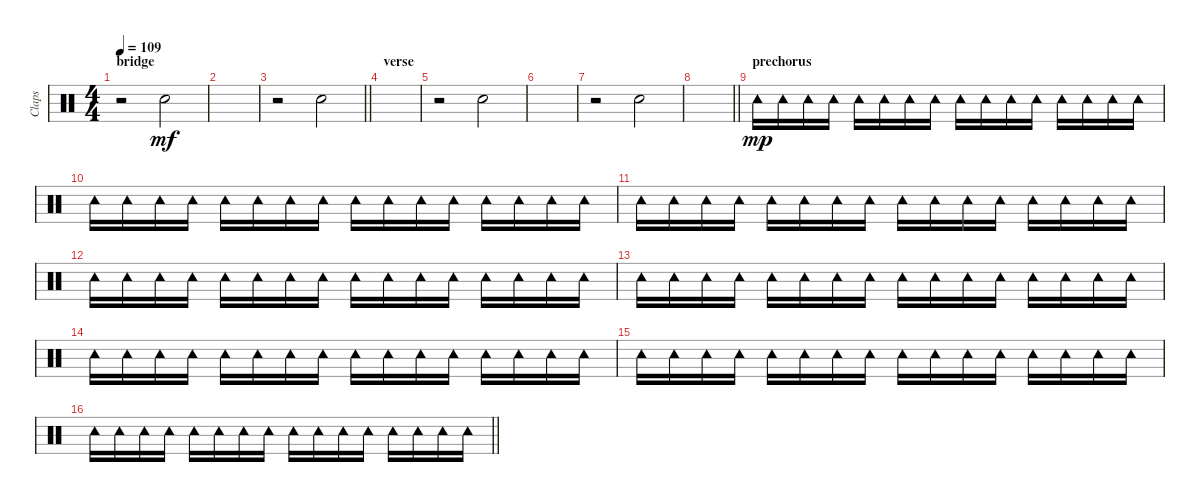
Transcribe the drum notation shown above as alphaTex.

\track ("Claps" "Claps") {instrument percussion}
\staff {score}
\articulation defaults
\ts (4 4)
\section ("" "bridge")
\tempo 109
\clef neutral
\ks c
r.2{dy mf} "Hand Clap (hit)".2 |
|
\barLineRight lightlight
r.2 "Hand Clap (hit)".2 |
\section ("" "verse")
|
r.2 "Hand Clap (hit)".2 |
|
r.2 "Hand Clap (hit)".2 |
\barLineRight lightlight
|
\section ("" "prechorus")
"Tambourine (hit)".16{dy mp} "Tambourine (hit)".16 "Tambourine (hit)".16 "Tambourine (hit)".16 "Tambourine (hit)".16 "Tambourine (hit)".16 "Tambourine (hit)".16 "Tambourine (hit)".16 "Tambourine (hit)".16 "Tambourine (hit)".16 "Tambourine (hit)".16 "Tambourine (hit)".16 "Tambourine (hit)".16 "Tambourine (hit)".16 "Tambourine (hit)".16 "Tambourine (hit)".16 |
"Tambourine (hit)".16 "Tambourine (hit)".16 "Tambourine (hit)".16 "Tambourine (hit)".16 "Tambourine (hit)".16 "Tambourine (hit)".16 "Tambourine (hit)".16 "Tambourine (hit)".16 "Tambourine (hit)".16 "Tambourine (hit)".16 "Tambourine (hit)".16 "Tambourine (hit)".16 "Tambourine (hit)".16 "Tambourine (hit)".16 "Tambourine (hit)".16 "Tambourine (hit)".16 |
"Tambourine (hit)".16 "Tambourine (hit)".16 "Tambourine (hit)".16 "Tambourine (hit)".16 "Tambourine (hit)".16 "Tambourine (hit)".16 "Tambourine (hit)".16 "Tambourine (hit)".16 "Tambourine (hit)".16 "Tambourine (hit)".16 "Tambourine (hit)".16 "Tambourine (hit)".16 "Tambourine (hit)".16 "Tambourine (hit)".16 "Tambourine (hit)".16 "Tambourine (hit)".16 |
"Tambourine (hit)".16 "Tambourine (hit)".16 "Tambourine (hit)".16 "Tambourine (hit)".16 "Tambourine (hit)".16 "Tambourine (hit)".16 "Tambourine (hit)".16 "Tambourine (hit)".16 "Tambourine (hit)".16 "Tambourine (hit)".16 "Tambourine (hit)".16 "Tambourine (hit)".16 "Tambourine (hit)".16 "Tambourine (hit)".16 "Tambourine (hit)".16 "Tambourine (hit)".16 |
"Tambourine (hit)".16 "Tambourine (hit)".16 "Tambourine (hit)".16 "Tambourine (hit)".16 "Tambourine (hit)".16 "Tambourine (hit)".16 "Tambourine (hit)".16 "Tambourine (hit)".16 "Tambourine (hit)".16 "Tambourine (hit)".16 "Tambourine (hit)".16 "Tambourine (hit)".16 "Tambourine (hit)".16 "Tambourine (hit)".16 "Tambourine (hit)".16 "Tambourine (hit)".16 |
"Tambourine (hit)".16 "Tambourine (hit)".16 "Tambourine (hit)".16 "Tambourine (hit)".16 "Tambourine (hit)".16 "Tambourine (hit)".16 "Tambourine (hit)".16 "Tambourine (hit)".16 "Tambourine (hit)".16 "Tambourine (hit)".16 "Tambourine (hit)".16 "Tambourine (hit)".16 "Tambourine (hit)".16 "Tambourine (hit)".16 "Tambourine (hit)".16 "Tambourine (hit)".16 |
"Tambourine (hit)".16 "Tambourine (hit)".16 "Tambourine (hit)".16 "Tambourine (hit)".16 "Tambourine (hit)".16 "Tambourine (hit)".16 "Tambourine (hit)".16 "Tambourine (hit)".16 "Tambourine (hit)".16 "Tambourine (hit)".16 "Tambourine (hit)".16 "Tambourine (hit)".16 "Tambourine (hit)".16 "Tambourine (hit)".16 "Tambourine (hit)".16 "Tambourine (hit)".16 |
\barLineRight lightlight "Tambourine (hit)".16 "Tambourine (hit)".16 "Tambourine (hit)".16 "Tambourine (hit)".16 "Tambourine (hit)".16 "Tambourine (hit)".16 "Tambourine (hit)".16 "Tambourine (hit)".16 "Tambourine (hit)".16 "Tambourine (hit)".16 "Tambourine (hit)".16 "Tambourine (hit)".16 "Tambourine (hit)".16 "Tambourine (hit)".16 "Tambourine (hit)".16 "Tambourine (hit)".16
